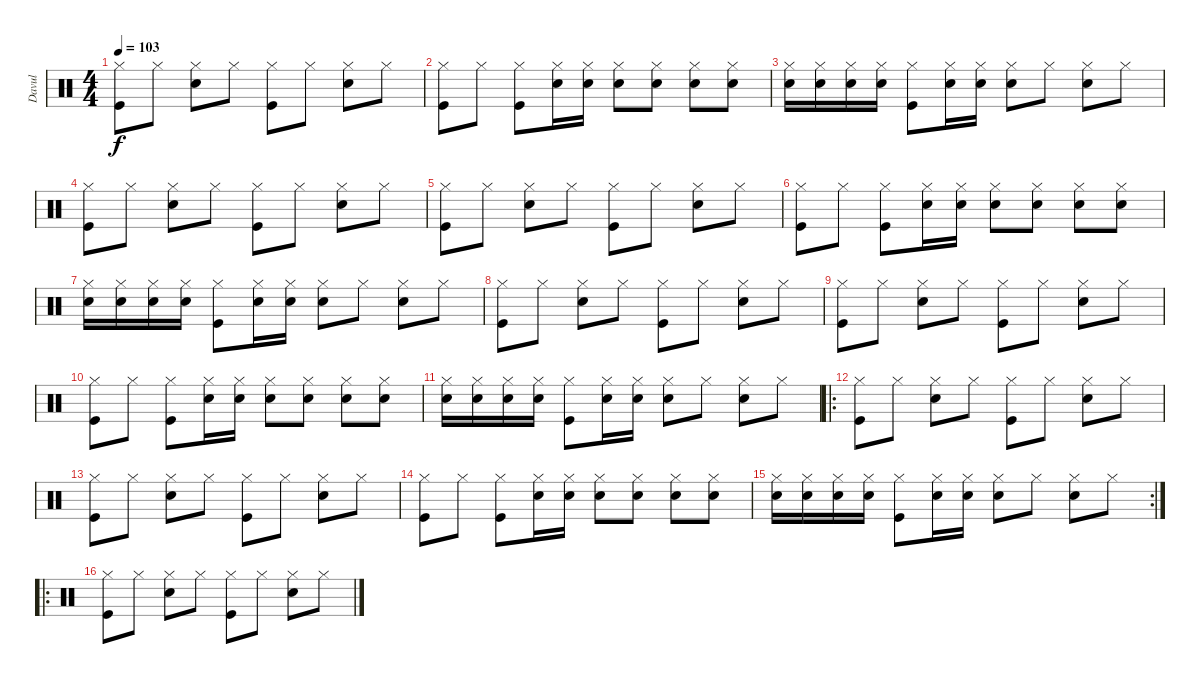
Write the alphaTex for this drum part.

\track ("Davul" "Davul") {instrument percussion}
\staff {score}
\articulation defaults
\ts (4 4)
\tempo 103
\clef neutral
\ks c
("Hi-Hat (closed)" "Kick (hit)").8{dy f} "Hi-Hat (closed)".8 ("Hi-Hat (closed)" "Electric Snare (hit)").8 "Hi-Hat (closed)".8 ("Hi-Hat (closed)" "Kick (hit)").8 "Hi-Hat (closed)".8 ("Hi-Hat (closed)" "Electric Snare (hit)").8 "Hi-Hat (closed)".8 |
("Hi-Hat (closed)" "Kick (hit)").8 "Hi-Hat (closed)".8 ("Hi-Hat (closed)" "Kick (hit)").8 ("Hi-Hat (closed)" "Electric Snare (hit)").16 ("Hi-Hat (closed)" "Electric Snare (hit)").16 ("Hi-Hat (closed)" "Electric Snare (hit)").8 ("Hi-Hat (closed)" "Electric Snare (hit)").8 ("Hi-Hat (closed)" "Electric Snare (hit)").8 ("Hi-Hat (closed)" "Electric Snare (hit)").8 |
("Hi-Hat (closed)" "Electric Snare (hit)").16 ("Hi-Hat (closed)" "Electric Snare (hit)").16 ("Hi-Hat (closed)" "Electric Snare (hit)").16 ("Hi-Hat (closed)" "Electric Snare (hit)").16 ("Hi-Hat (closed)" "Kick (hit)").8 ("Hi-Hat (closed)" "Electric Snare (hit)").16 ("Hi-Hat (closed)" "Electric Snare (hit)").16 ("Hi-Hat (closed)" "Electric Snare (hit)").8 "Hi-Hat (closed)".8 ("Hi-Hat (closed)" "Electric Snare (hit)").8 "Hi-Hat (closed)".8 |
("Hi-Hat (closed)" "Kick (hit)").8 "Hi-Hat (closed)".8 ("Hi-Hat (closed)" "Electric Snare (hit)").8 "Hi-Hat (closed)".8 ("Hi-Hat (closed)" "Kick (hit)").8 "Hi-Hat (closed)".8 ("Hi-Hat (closed)" "Electric Snare (hit)").8 "Hi-Hat (closed)".8 |
("Hi-Hat (closed)" "Kick (hit)").8 "Hi-Hat (closed)".8 ("Hi-Hat (closed)" "Electric Snare (hit)").8 "Hi-Hat (closed)".8 ("Hi-Hat (closed)" "Kick (hit)").8 "Hi-Hat (closed)".8 ("Hi-Hat (closed)" "Electric Snare (hit)").8 "Hi-Hat (closed)".8 |
("Hi-Hat (closed)" "Kick (hit)").8 "Hi-Hat (closed)".8 ("Hi-Hat (closed)" "Kick (hit)").8 ("Hi-Hat (closed)" "Electric Snare (hit)").16 ("Hi-Hat (closed)" "Electric Snare (hit)").16 ("Hi-Hat (closed)" "Electric Snare (hit)").8 ("Hi-Hat (closed)" "Electric Snare (hit)").8 ("Hi-Hat (closed)" "Electric Snare (hit)").8 ("Hi-Hat (closed)" "Electric Snare (hit)").8 |
("Hi-Hat (closed)" "Electric Snare (hit)").16 ("Hi-Hat (closed)" "Electric Snare (hit)").16 ("Hi-Hat (closed)" "Electric Snare (hit)").16 ("Hi-Hat (closed)" "Electric Snare (hit)").16 ("Hi-Hat (closed)" "Kick (hit)").8 ("Hi-Hat (closed)" "Electric Snare (hit)").16 ("Hi-Hat (closed)" "Electric Snare (hit)").16 ("Hi-Hat (closed)" "Electric Snare (hit)").8 "Hi-Hat (closed)".8 ("Hi-Hat (closed)" "Electric Snare (hit)").8 "Hi-Hat (closed)".8 |
("Hi-Hat (closed)" "Kick (hit)").8 "Hi-Hat (closed)".8 ("Hi-Hat (closed)" "Electric Snare (hit)").8 "Hi-Hat (closed)".8 ("Hi-Hat (closed)" "Kick (hit)").8 "Hi-Hat (closed)".8 ("Hi-Hat (closed)" "Electric Snare (hit)").8 "Hi-Hat (closed)".8 |
("Hi-Hat (closed)" "Kick (hit)").8 "Hi-Hat (closed)".8 ("Hi-Hat (closed)" "Electric Snare (hit)").8 "Hi-Hat (closed)".8 ("Hi-Hat (closed)" "Kick (hit)").8 "Hi-Hat (closed)".8 ("Hi-Hat (closed)" "Electric Snare (hit)").8 "Hi-Hat (closed)".8 |
("Hi-Hat (closed)" "Kick (hit)").8 "Hi-Hat (closed)".8 ("Hi-Hat (closed)" "Kick (hit)").8 ("Hi-Hat (closed)" "Electric Snare (hit)").16 ("Hi-Hat (closed)" "Electric Snare (hit)").16 ("Hi-Hat (closed)" "Electric Snare (hit)").8 ("Hi-Hat (closed)" "Electric Snare (hit)").8 ("Hi-Hat (closed)" "Electric Snare (hit)").8 ("Hi-Hat (closed)" "Electric Snare (hit)").8 |
("Hi-Hat (closed)" "Electric Snare (hit)").16 ("Hi-Hat (closed)" "Electric Snare (hit)").16 ("Hi-Hat (closed)" "Electric Snare (hit)").16 ("Hi-Hat (closed)" "Electric Snare (hit)").16 ("Hi-Hat (closed)" "Kick (hit)").8 ("Hi-Hat (closed)" "Electric Snare (hit)").16 ("Hi-Hat (closed)" "Electric Snare (hit)").16 ("Hi-Hat (closed)" "Electric Snare (hit)").8 "Hi-Hat (closed)".8 ("Hi-Hat (closed)" "Electric Snare (hit)").8 "Hi-Hat (closed)".8 |
\ro
("Hi-Hat (closed)" "Kick (hit)").8 "Hi-Hat (closed)".8 ("Hi-Hat (closed)" "Electric Snare (hit)").8 "Hi-Hat (closed)".8 ("Hi-Hat (closed)" "Kick (hit)").8 "Hi-Hat (closed)".8 ("Hi-Hat (closed)" "Electric Snare (hit)").8 "Hi-Hat (closed)".8 |
("Hi-Hat (closed)" "Kick (hit)").8 "Hi-Hat (closed)".8 ("Hi-Hat (closed)" "Electric Snare (hit)").8 "Hi-Hat (closed)".8 ("Hi-Hat (closed)" "Kick (hit)").8 "Hi-Hat (closed)".8 ("Hi-Hat (closed)" "Electric Snare (hit)").8 "Hi-Hat (closed)".8 |
("Hi-Hat (closed)" "Kick (hit)").8 "Hi-Hat (closed)".8 ("Hi-Hat (closed)" "Kick (hit)").8 ("Hi-Hat (closed)" "Electric Snare (hit)").16 ("Hi-Hat (closed)" "Electric Snare (hit)").16 ("Hi-Hat (closed)" "Electric Snare (hit)").8 ("Hi-Hat (closed)" "Electric Snare (hit)").8 ("Hi-Hat (closed)" "Electric Snare (hit)").8 ("Hi-Hat (closed)" "Electric Snare (hit)").8 |
\rc 2
("Hi-Hat (closed)" "Electric Snare (hit)").16 ("Hi-Hat (closed)" "Electric Snare (hit)").16 ("Hi-Hat (closed)" "Electric Snare (hit)").16 ("Hi-Hat (closed)" "Electric Snare (hit)").16 ("Hi-Hat (closed)" "Kick (hit)").8 ("Hi-Hat (closed)" "Electric Snare (hit)").16 ("Hi-Hat (closed)" "Electric Snare (hit)").16 ("Hi-Hat (closed)" "Electric Snare (hit)").8 "Hi-Hat (closed)".8 ("Hi-Hat (closed)" "Electric Snare (hit)").8 "Hi-Hat (closed)".8 |
\ro
("Hi-Hat (closed)" "Kick (hit)").8 "Hi-Hat (closed)".8 ("Hi-Hat (closed)" "Electric Snare (hit)").8 "Hi-Hat (closed)".8 ("Hi-Hat (closed)" "Kick (hit)").8 "Hi-Hat (closed)".8 ("Hi-Hat (closed)" "Electric Snare (hit)").8 "Hi-Hat (closed)".8
